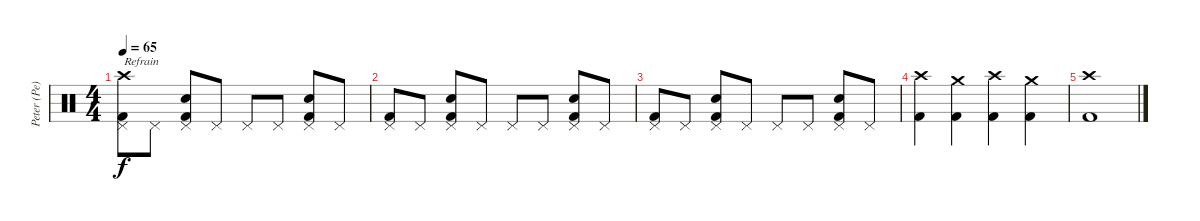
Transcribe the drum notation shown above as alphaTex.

\track ("Peter (Pe) Schorowsky" "Peter (Pe)") {instrument percussion}
\staff {score}
\articulation defaults
\ts (4 4)
\tempo 65
\clef neutral
\ks c
("Crash high (hit)" "Pedal Hi-Hat (hit)" "Kick (hit) 2").8{txt "Refrain" dy f} "Pedal Hi-Hat (hit)".8 ("Pedal Hi-Hat (hit)" "Snare (hit) 2" "Kick (hit) 2").8 "Pedal Hi-Hat (hit)".8 "Pedal Hi-Hat (hit)".8 "Pedal Hi-Hat (hit)".8 ("Pedal Hi-Hat (hit)" "Snare (hit) 2" "Kick (hit) 2").8 "Pedal Hi-Hat (hit)".8 |
("Pedal Hi-Hat (hit)" "Kick (hit) 2").8 "Pedal Hi-Hat (hit)".8 ("Pedal Hi-Hat (hit)" "Snare (hit) 2" "Kick (hit) 2").8 "Pedal Hi-Hat (hit)".8 "Pedal Hi-Hat (hit)".8 "Pedal Hi-Hat (hit)".8 ("Pedal Hi-Hat (hit)" "Snare (hit) 2" "Kick (hit) 2").8 "Pedal Hi-Hat (hit)".8 |
("Pedal Hi-Hat (hit)" "Kick (hit) 2").8 "Pedal Hi-Hat (hit)".8 ("Pedal Hi-Hat (hit)" "Snare (hit) 2" "Kick (hit) 2").8 "Pedal Hi-Hat (hit)".8 "Pedal Hi-Hat (hit)".8 "Pedal Hi-Hat (hit)".8 ("Pedal Hi-Hat (hit)" "Snare (hit) 2" "Kick (hit) 2").8 "Pedal Hi-Hat (hit)".8 |
("Crash high (hit)" "Kick (hit) 2").4 ("Crash medium (hit)" "Kick (hit) 2").4 ("Crash high (hit)" "Kick (hit) 2").4 ("Crash medium (hit)" "Kick (hit) 2").4 |
("Crash high (hit)" "Kick (hit) 2").1
